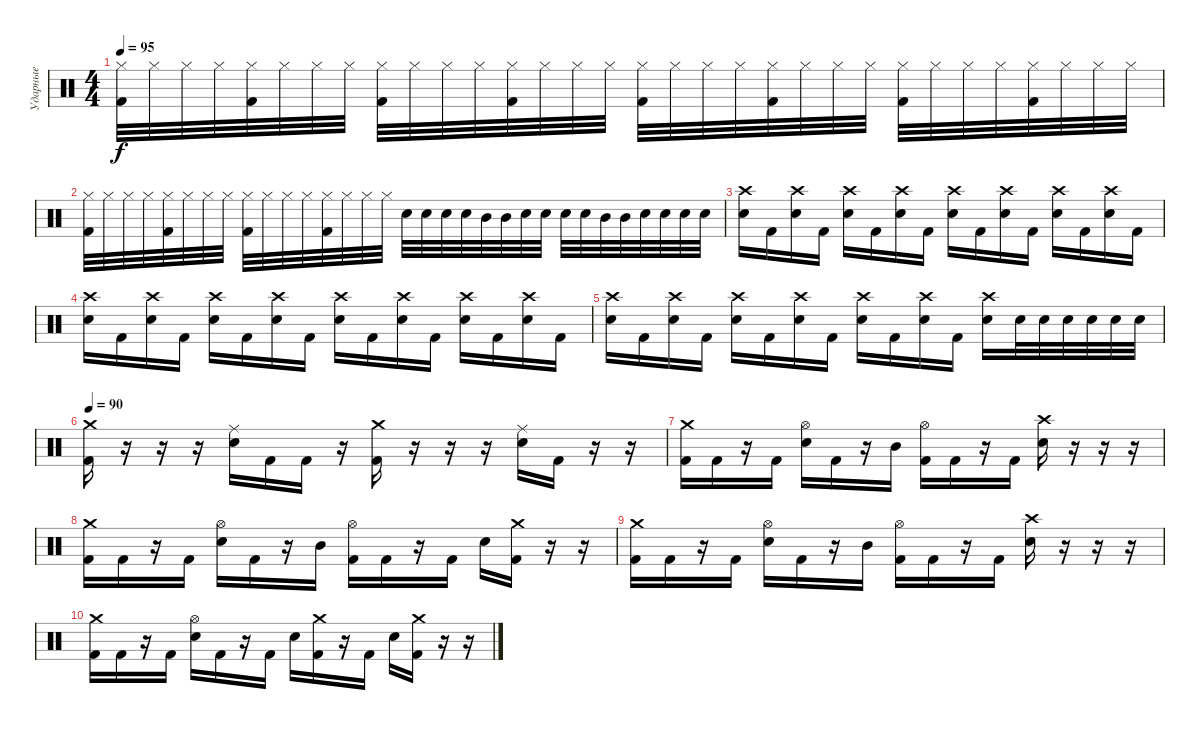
\track ("Ударные" "Ударные") {instrument percussion}
\staff {score}
\articulation defaults
\ts (4 4)
\tempo 95
\clef neutral
\ks c
("Hi-Hat (closed)" "Kick (hit) 2").32{dy f} "Hi-Hat (closed)".32 "Hi-Hat (closed)".32 "Hi-Hat (closed)".32 ("Hi-Hat (closed)" "Kick (hit) 2").32 "Hi-Hat (closed)".32 "Hi-Hat (closed)".32 "Hi-Hat (closed)".32 ("Hi-Hat (closed)" "Kick (hit) 2").32 "Hi-Hat (closed)".32 "Hi-Hat (closed)".32 "Hi-Hat (closed)".32 ("Hi-Hat (closed)" "Kick (hit) 2").32 "Hi-Hat (closed)".32 "Hi-Hat (closed)".32 "Hi-Hat (closed)".32 ("Hi-Hat (closed)" "Kick (hit) 2").32 "Hi-Hat (closed)".32 "Hi-Hat (closed)".32 "Hi-Hat (closed)".32 ("Hi-Hat (closed)" "Kick (hit) 2").32 "Hi-Hat (closed)".32 "Hi-Hat (closed)".32 "Hi-Hat (closed)".32 ("Hi-Hat (closed)" "Kick (hit) 2").32 "Hi-Hat (closed)".32 "Hi-Hat (closed)".32 "Hi-Hat (closed)".32 ("Hi-Hat (closed)" "Kick (hit) 2").32 "Hi-Hat (closed)".32 "Hi-Hat (closed)".32 "Hi-Hat (closed)".32 |
("Hi-Hat (closed)" "Kick (hit) 2").32 "Hi-Hat (closed)".32 "Hi-Hat (closed)".32 "Hi-Hat (closed)".32 ("Hi-Hat (closed)" "Kick (hit) 2").32 "Hi-Hat (closed)".32 "Hi-Hat (closed)".32 "Hi-Hat (closed)".32 ("Hi-Hat (closed)" "Kick (hit) 2").32 "Hi-Hat (closed)".32 "Hi-Hat (closed)".32 "Hi-Hat (closed)".32 ("Hi-Hat (closed)" "Kick (hit) 2").32 "Hi-Hat (closed)".32 "Hi-Hat (closed)".32 "Hi-Hat (closed)".32 "Electric Snare (hit)".32 "Electric Snare (hit)".32 "Electric Snare (hit)".32 "Electric Snare (hit)".32 "Mid Tom (hit)".32 "Mid Tom (hit)".32 "Electric Snare (hit)".32 "Electric Snare (hit)".32 "Electric Snare (hit)".32 "Electric Snare (hit)".32 "Mid Tom (hit)".32 "Mid Tom (hit)".32 "Electric Snare (hit)".32 "Electric Snare (hit)".32 "Electric Snare (hit)".32 "Electric Snare (hit)".32 |
("Crash high (hit)" "Electric Snare (hit)").16 "Kick (hit) 2".16 ("Crash high (hit)" "Electric Snare (hit)").16 "Kick (hit) 2".16 ("Crash high (hit)" "Electric Snare (hit)").16 "Kick (hit) 2".16 ("Crash high (hit)" "Electric Snare (hit)").16 "Kick (hit) 2".16 ("Crash high (hit)" "Electric Snare (hit)").16 "Kick (hit) 2".16 ("Crash high (hit)" "Electric Snare (hit)").16 "Kick (hit) 2".16 ("Crash high (hit)" "Electric Snare (hit)").16 "Kick (hit) 2".16 ("Crash high (hit)" "Electric Snare (hit)").16 "Kick (hit) 2".16 |
("Crash high (hit)" "Electric Snare (hit)").16 "Kick (hit) 2".16 ("Crash high (hit)" "Electric Snare (hit)").16 "Kick (hit) 2".16 ("Crash high (hit)" "Electric Snare (hit)").16 "Kick (hit) 2".16 ("Crash high (hit)" "Electric Snare (hit)").16 "Kick (hit) 2".16 ("Crash high (hit)" "Electric Snare (hit)").16 "Kick (hit) 2".16 ("Crash high (hit)" "Electric Snare (hit)").16 "Kick (hit) 2".16 ("Crash high (hit)" "Electric Snare (hit)").16 "Kick (hit) 2".16 ("Crash high (hit)" "Electric Snare (hit)").16 "Kick (hit) 2".16 |
("Crash high (hit)" "Electric Snare (hit)").16 "Kick (hit) 2".16 ("Crash high (hit)" "Electric Snare (hit)").16 "Kick (hit) 2".16 ("Crash high (hit)" "Electric Snare (hit)").16 "Kick (hit) 2".16 ("Crash high (hit)" "Electric Snare (hit)").16 "Kick (hit) 2".16 ("Crash high (hit)" "Electric Snare (hit)").16 "Kick (hit) 2".16 ("Crash high (hit)" "Electric Snare (hit)").16 "Kick (hit) 2".16 ("Crash high (hit)" "Electric Snare (hit)").16 "Electric Snare (hit)".32 "Electric Snare (hit)".32 "Electric Snare (hit)".32 "Electric Snare (hit)".32 "Electric Snare (hit)".32 "Electric Snare (hit)".32 |
\tempo 90
("Crash medium (hit)" "Kick (hit) 2").16 r.16 r.16 r.16 ("Ride (middle)" "Electric Snare (hit)").16 "Kick (hit) 2".16 "Kick (hit) 2".16 r.16 ("Crash medium (hit)" "Kick (hit) 2").16 r.16 r.16 r.16 ("Ride (middle)" "Electric Snare (hit)").16 "Kick (hit) 2".16 r.16 r.16 |
("Crash medium (hit)" "Kick (hit) 2").16 "Kick (hit) 2".16 r.16 "Kick (hit) 2".16 ("Hi-Hat (open)" "Electric Snare (hit)").16 "Kick (hit) 2".16 r.16 "Mid Tom (hit)".16 ("Hi-Hat (open)" "Kick (hit) 2").16 "Kick (hit) 2".16 r.16 "Kick (hit) 2".16 ("Crash high (hit)" "Electric Snare (hit)").16 r.16 r.16 r.16 |
("Crash medium (hit)" "Kick (hit) 2").16 "Kick (hit) 2".16 r.16 "Kick (hit) 2".16 ("Hi-Hat (open)" "Electric Snare (hit)").16 "Kick (hit) 2".16 r.16 "Mid Tom (hit)".16 ("Hi-Hat (open)" "Kick (hit) 2").16 "Kick (hit) 2".16 r.16 "Kick (hit) 2".16 "Electric Snare (hit)".16 ("Crash medium (hit)" "Kick (hit) 2").16 r.16 r.16 |
("Crash medium (hit)" "Kick (hit) 2").16 "Kick (hit) 2".16 r.16 "Kick (hit) 2".16 ("Hi-Hat (open)" "Electric Snare (hit)").16 "Kick (hit) 2".16 r.16 "Mid Tom (hit)".16 ("Hi-Hat (open)" "Kick (hit) 2").16 "Kick (hit) 2".16 r.16 "Kick (hit) 2".16 ("Crash high (hit)" "Electric Snare (hit)").16 r.16 r.16 r.16 |
("Crash medium (hit)" "Kick (hit) 2").16 "Kick (hit) 2".16 r.16 "Kick (hit) 2".16 ("Hi-Hat (open)" "Electric Snare (hit)").16 "Kick (hit) 2".16 r.16 "Kick (hit) 2".16 "Electric Snare (hit)".16 ("Crash medium (hit)" "Kick (hit) 2").16 r.16 "Kick (hit) 2".16 "Electric Snare (hit)".16 ("Crash medium (hit)" "Kick (hit) 2").16 r.16 r.16
